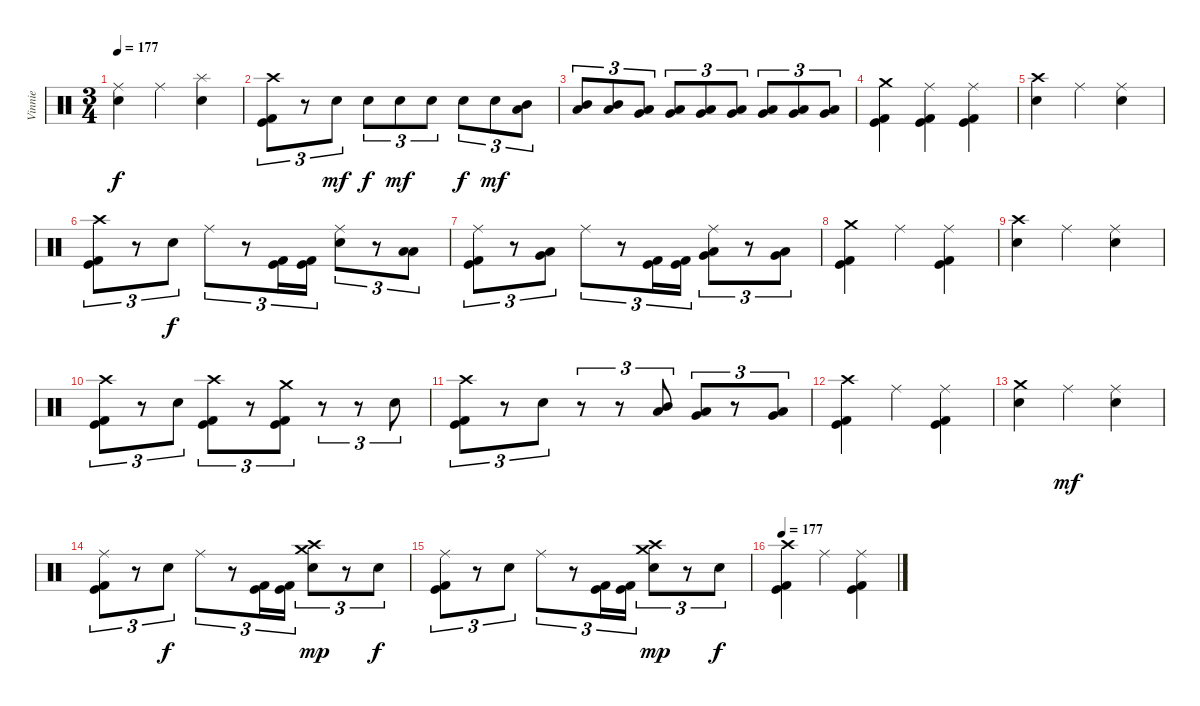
\track ("Vinnie" "Vinnie") {instrument percussion}
\staff {score}
\articulation defaults
\ts (3 4)
\tempo 177
\clef neutral
\ks c
("Ride (middle)" "Electric Snare (hit)").4{dy f} "Ride (middle)".4 ("Splash (hit)" "Electric Snare (hit)").4 |
("Crash high (hit)" "Kick (hit)" "Kick (hit) 2").8{tu (3 2)} r.8{tu (3 2)} "Electric Snare (hit)".8{tu (3 2) dy mf} "Electric Snare (hit)".8{tu (3 2) dy f} "Electric Snare (hit)".8{tu (3 2) dy mf} "Electric Snare (hit)".8{tu (3 2)} "Electric Snare (hit)".8{tu (3 2) dy f} "Electric Snare (hit)".8{tu (3 2) dy mf} ("Low Tom (hit)" "Mid Tom (hit)").8{tu (3 2)} |
("Low Tom (hit)" "Mid Tom (hit)").8{tu (3 2)} ("Low Tom (hit)" "Mid Tom (hit)").8{tu (3 2)} ("Very Low Tom (hit)" "Low Tom (hit)").8{tu (3 2)} ("Very Low Tom (hit)" "Low Tom (hit)").8{tu (3 2)} ("Very Low Tom (hit)" "Low Tom (hit)").8{tu (3 2)} ("Low Floor Tom (hit)" "Very Low Tom (hit)").8{tu (3 2)} ("Low Floor Tom (hit)" "Very Low Tom (hit)").8{tu (3 2)} ("Low Floor Tom (hit)" "Very Low Tom (hit)").8{tu (3 2)} ("Low Floor Tom (hit)" "Very Low Tom (hit)").8{tu (3 2)} |
("Crash medium (hit)" "Kick (hit)" "Kick (hit) 2").4 ("Ride (middle)" "Kick (hit)" "Kick (hit) 2").4 ("Ride (middle)" "Kick (hit)" "Kick (hit) 2").4 |
("Crash high (hit)" "Electric Snare (hit)").4 "Ride (middle)".4 ("Ride (middle)" "Electric Snare (hit)").4 |
("Crash high (hit)" "Kick (hit)" "Kick (hit) 2").8{tu (3 2)} r.8{tu (3 2)} "Electric Snare (hit)".8{tu (3 2) dy f} "Ride (middle)".8{tu (3 2)} r.8{tu (3 2)} ("Kick (hit)" "Kick (hit) 2").16{tu (3 2)} ("Kick (hit)" "Kick (hit) 2").16{tu (3 2)} ("Ride (middle)" "Electric Snare (hit)").8{tu (3 2)} r.8{tu (3 2)} ("Low Tom (hit)" "Low Floor Tom (hit)").8{tu (3 2)} |
("Ride (middle)" "Kick (hit)" "Kick (hit) 2").8{tu (3 2)} r.8{tu (3 2)} ("Low Tom (hit)" "Very Low Tom (hit)").8{tu (3 2)} "Ride (middle)".8{tu (3 2)} r.8{tu (3 2)} ("Kick (hit)" "Kick (hit) 2").16{tu (3 2)} ("Kick (hit)" "Kick (hit) 2").16{tu (3 2)} ("Ride (middle)" "Very Low Tom (hit)" "Low Tom (hit)").8{tu (3 2)} r.8{tu (3 2)} ("Very Low Tom (hit)" "Low Tom (hit)").8{tu (3 2)} |
("Crash medium (hit)" "Kick (hit)" "Kick (hit) 2").4 "Ride (middle)".4 ("Ride (middle)" "Kick (hit)" "Kick (hit) 2").4 |
("Crash high (hit)" "Electric Snare (hit)").4 "Ride (middle)".4 ("Ride (middle)" "Electric Snare (hit)").4 |
("Crash high (hit)" "Kick (hit)" "Kick (hit) 2").8{tu (3 2)} r.8{tu (3 2)} "Electric Snare (hit)".8{tu (3 2)} ("Crash high (hit)" "Kick (hit)" "Kick (hit) 2").8{tu (3 2)} r.8{tu (3 2)} ("Crash medium (hit)" "Kick (hit)" "Kick (hit) 2").8{tu (3 2)} r.8{tu (3 2)} r.8{tu (3 2)} "Electric Snare (hit)".8{tu (3 2)} |
("Crash high (hit)" "Kick (hit)" "Kick (hit) 2").8{tu (3 2)} r.8{tu (3 2)} "Electric Snare (hit)".8{tu (3 2)} r.8{tu (3 2)} r.8{tu (3 2)} ("Mid Tom (hit)" "Low Tom (hit)").8{tu (3 2)} ("Low Tom (hit)" "Very Low Tom (hit)").8{tu (3 2)} r.8{tu (3 2)} ("Very Low Tom (hit)" "Low Floor Tom (hit)").8{tu (3 2)} |
("Crash high (hit)" "Kick (hit)" "Kick (hit) 2").4 "Ride (middle)".4 ("Ride (middle)" "Kick (hit)" "Kick (hit) 2").4 |
("Crash medium (hit)" "Electric Snare (hit)").4 "Ride (middle)".4{dy mf} ("Ride (middle)" "Electric Snare (hit)").4 |
("Ride (middle)" "Kick (hit)" "Kick (hit) 2").8{tu (3 2)} r.8{tu (3 2)} "Electric Snare (hit)".8{tu (3 2) dy f} "Ride (middle)".8{tu (3 2)} r.8{tu (3 2)} ("Kick (hit)" "Kick (hit) 2").16{tu (3 2)} ("Kick (hit)" "Kick (hit) 2").16{tu (3 2)} ("Crash high (hit)" "Crash medium (hit)" "Electric Snare (hit)").8{tu (3 2) dy mp} r.8{tu (3 2)} "Electric Snare (hit)".8{tu (3 2) dy f} |
("Ride (middle)" "Kick (hit)" "Kick (hit) 2").8{tu (3 2)} r.8{tu (3 2)} "Electric Snare (hit)".8{tu (3 2)} "Ride (middle)".8{tu (3 2)} r.8{tu (3 2)} ("Kick (hit)" "Kick (hit) 2").16{tu (3 2)} ("Kick (hit)" "Kick (hit) 2").16{tu (3 2)} ("Crash high (hit)" "Crash medium (hit)" "Electric Snare (hit)").8{tu (3 2) dy mp} r.8{tu (3 2)} "Electric Snare (hit)".8{tu (3 2) dy f} |
\tempo 177
("Crash high (hit)" "Kick (hit)" "Kick (hit) 2").4 "Ride (middle)".4 ("Ride (middle)" "Kick (hit)" "Kick (hit) 2").4
